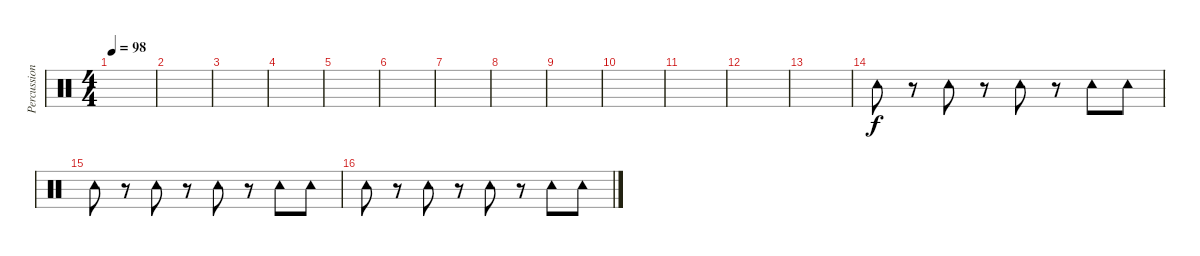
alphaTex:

\track ("Percussions" "Percussion") {instrument percussion}
\staff {score}
\articulation defaults
\ts (4 4)
\tempo 98
\clef neutral
\ks c
|
|
|
|
|
|
|
|
|
|
|
|
|
"Tambourine (hit)".8 r.8 "Tambourine (hit)".8 r.8 "Tambourine (hit)".8 r.8 "Tambourine (hit)".8 "Tambourine (hit)".8 |
"Tambourine (hit)".8 r.8 "Tambourine (hit)".8 r.8 "Tambourine (hit)".8 r.8 "Tambourine (hit)".8 "Tambourine (hit)".8 |
"Tambourine (hit)".8 r.8 "Tambourine (hit)".8 r.8 "Tambourine (hit)".8 r.8 "Tambourine (hit)".8 "Tambourine (hit)".8
